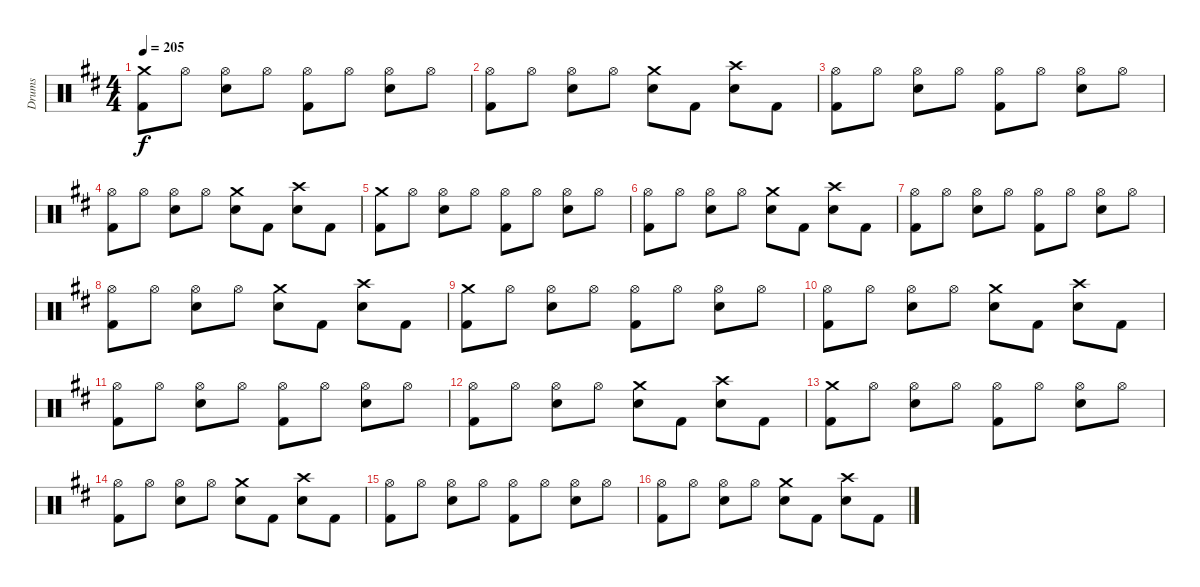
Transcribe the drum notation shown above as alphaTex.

\track ("Drums" "Drums") {instrument percussion}
\staff {score}
\articulation defaults
\ts (4 4)
\tempo 205
\clef neutral
\ks d
("Crash medium (hit)" "Kick (hit) 2").8{dy f} "Hi-Hat (open)".8 ("Hi-Hat (open)" "Snare (hit) 2").8 "Hi-Hat (open)".8 ("Hi-Hat (open)" "Kick (hit) 2").8 "Hi-Hat (open)".8 ("Hi-Hat (open)" "Snare (hit) 2").8 "Hi-Hat (open)".8 |
("Hi-Hat (open)" "Kick (hit) 2").8 "Hi-Hat (open)".8 ("Hi-Hat (open)" "Snare (hit) 2").8 "Hi-Hat (open)".8 ("Crash medium (hit)" "Snare (hit) 2").8 "Kick (hit) 2".8 ("Crash high (hit)" "Snare (hit) 2").8 "Kick (hit) 2".8 |
("Hi-Hat (open)" "Kick (hit) 2").8 "Hi-Hat (open)".8 ("Hi-Hat (open)" "Snare (hit) 2").8 "Hi-Hat (open)".8 ("Hi-Hat (open)" "Kick (hit) 2").8 "Hi-Hat (open)".8 ("Hi-Hat (open)" "Snare (hit) 2").8 "Hi-Hat (open)".8 |
("Hi-Hat (open)" "Kick (hit) 2").8 "Hi-Hat (open)".8 ("Hi-Hat (open)" "Snare (hit) 2").8 "Hi-Hat (open)".8 ("Crash medium (hit)" "Snare (hit) 2").8 "Kick (hit) 2".8 ("Crash high (hit)" "Snare (hit) 2").8 "Kick (hit) 2".8 |
("Crash medium (hit)" "Kick (hit) 2").8 "Hi-Hat (open)".8 ("Hi-Hat (open)" "Snare (hit) 2").8 "Hi-Hat (open)".8 ("Hi-Hat (open)" "Kick (hit) 2").8 "Hi-Hat (open)".8 ("Hi-Hat (open)" "Snare (hit) 2").8 "Hi-Hat (open)".8 |
("Hi-Hat (open)" "Kick (hit) 2").8 "Hi-Hat (open)".8 ("Hi-Hat (open)" "Snare (hit) 2").8 "Hi-Hat (open)".8 ("Crash medium (hit)" "Snare (hit) 2").8 "Kick (hit) 2".8 ("Crash high (hit)" "Snare (hit) 2").8 "Kick (hit) 2".8 |
("Hi-Hat (open)" "Kick (hit) 2").8 "Hi-Hat (open)".8 ("Hi-Hat (open)" "Snare (hit) 2").8 "Hi-Hat (open)".8 ("Hi-Hat (open)" "Kick (hit) 2").8 "Hi-Hat (open)".8 ("Hi-Hat (open)" "Snare (hit) 2").8 "Hi-Hat (open)".8 |
("Hi-Hat (open)" "Kick (hit) 2").8 "Hi-Hat (open)".8 ("Hi-Hat (open)" "Snare (hit) 2").8 "Hi-Hat (open)".8 ("Crash medium (hit)" "Snare (hit) 2").8 "Kick (hit) 2".8 ("Crash high (hit)" "Snare (hit) 2").8 "Kick (hit) 2".8 |
("Crash medium (hit)" "Kick (hit) 2").8 "Hi-Hat (open)".8 ("Hi-Hat (open)" "Snare (hit) 2").8 "Hi-Hat (open)".8 ("Hi-Hat (open)" "Kick (hit) 2").8 "Hi-Hat (open)".8 ("Hi-Hat (open)" "Snare (hit) 2").8 "Hi-Hat (open)".8 |
("Hi-Hat (open)" "Kick (hit) 2").8 "Hi-Hat (open)".8 ("Hi-Hat (open)" "Snare (hit) 2").8 "Hi-Hat (open)".8 ("Crash medium (hit)" "Snare (hit) 2").8 "Kick (hit) 2".8 ("Crash high (hit)" "Snare (hit) 2").8 "Kick (hit) 2".8 |
("Hi-Hat (open)" "Kick (hit) 2").8 "Hi-Hat (open)".8 ("Hi-Hat (open)" "Snare (hit) 2").8 "Hi-Hat (open)".8 ("Hi-Hat (open)" "Kick (hit) 2").8 "Hi-Hat (open)".8 ("Hi-Hat (open)" "Snare (hit) 2").8 "Hi-Hat (open)".8 |
("Hi-Hat (open)" "Kick (hit) 2").8 "Hi-Hat (open)".8 ("Hi-Hat (open)" "Snare (hit) 2").8 "Hi-Hat (open)".8 ("Crash medium (hit)" "Snare (hit) 2").8 "Kick (hit) 2".8 ("Crash high (hit)" "Snare (hit) 2").8 "Kick (hit) 2".8 |
("Crash medium (hit)" "Kick (hit) 2").8 "Hi-Hat (open)".8 ("Hi-Hat (open)" "Snare (hit) 2").8 "Hi-Hat (open)".8 ("Hi-Hat (open)" "Kick (hit) 2").8 "Hi-Hat (open)".8 ("Hi-Hat (open)" "Snare (hit) 2").8 "Hi-Hat (open)".8 |
("Hi-Hat (open)" "Kick (hit) 2").8 "Hi-Hat (open)".8 ("Hi-Hat (open)" "Snare (hit) 2").8 "Hi-Hat (open)".8 ("Crash medium (hit)" "Snare (hit) 2").8 "Kick (hit) 2".8 ("Crash high (hit)" "Snare (hit) 2").8 "Kick (hit) 2".8 |
("Hi-Hat (open)" "Kick (hit) 2").8 "Hi-Hat (open)".8 ("Hi-Hat (open)" "Snare (hit) 2").8 "Hi-Hat (open)".8 ("Hi-Hat (open)" "Kick (hit) 2").8 "Hi-Hat (open)".8 ("Hi-Hat (open)" "Snare (hit) 2").8 "Hi-Hat (open)".8 |
("Hi-Hat (open)" "Kick (hit) 2").8 "Hi-Hat (open)".8 ("Hi-Hat (open)" "Snare (hit) 2").8 "Hi-Hat (open)".8 ("Crash medium (hit)" "Snare (hit) 2").8 "Kick (hit) 2".8 ("Crash high (hit)" "Snare (hit) 2").8 "Kick (hit) 2".8
